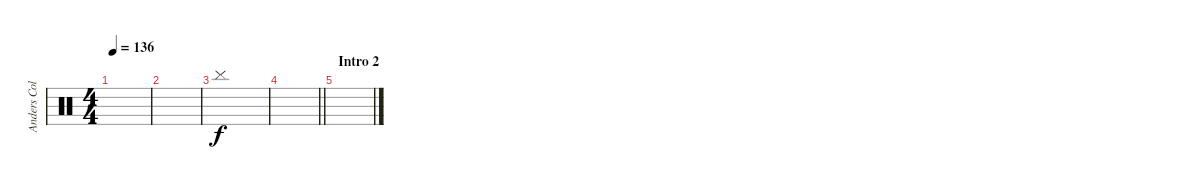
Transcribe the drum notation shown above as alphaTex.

\track ("Anders Colsefini" "Anders Col") {instrument percussion}
\staff {score}
\articulation defaults
\ts (4 4)
\tempo 136
\clef neutral
\ks c
|
|
"Cymbal (hit)".1 |
\barLineRight lightlight
|
\section ("" "Intro 2")
